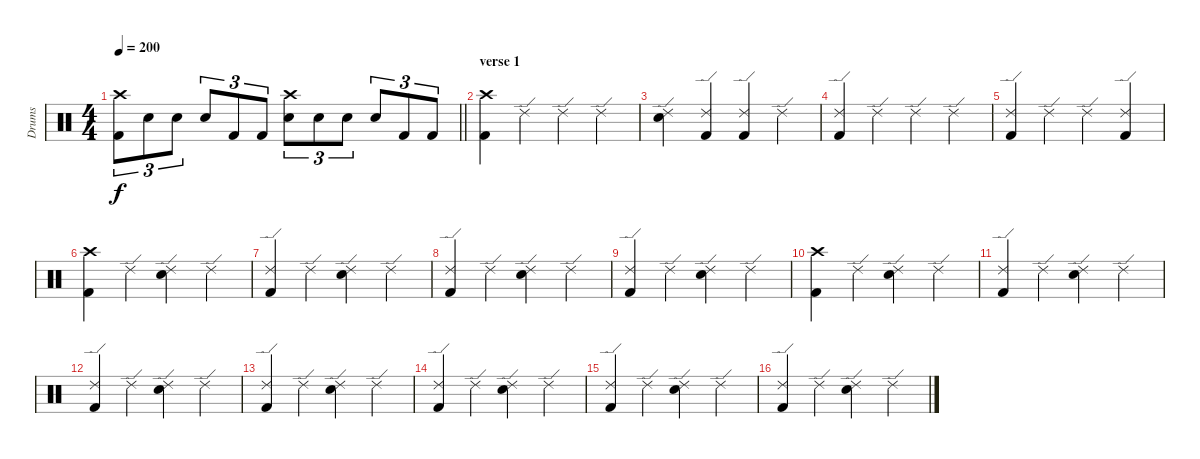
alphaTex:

\track ("Drums" "Drums") {instrument percussion}
\staff {score}
\articulation defaults
\ts (4 4)
\tempo 200
\clef neutral
\barLineRight lightlight
\ks c
("Crash high (hit)" "Kick (hit) 2").8{tu (3 2) dy f} "Electric Snare (hit)".8{tu (3 2)} "Electric Snare (hit)".8{tu (3 2)} "Electric Snare (hit)".8{tu (3 2)} "Kick (hit) 2".8{tu (3 2)} "Kick (hit) 2".8{tu (3 2)} ("Crash high (hit)" "Electric Snare (hit)").8{tu (3 2)} "Electric Snare (hit)".8{tu (3 2)} "Electric Snare (hit)".8{tu (3 2)} "Electric Snare (hit)".8{tu (3 2)} "Kick (hit) 2".8{tu (3 2)} "Kick (hit) 2".8{tu (3 2)} |
\section ("" "verse 1")
("Crash high (hit)" "Kick (hit) 2").4 "Ride (edge) 2".4 "Ride (edge) 2".4 "Ride (edge) 2".4 |
("Ride (edge) 2" "Electric Snare (hit)").4 ("Ride (edge) 2" "Kick (hit) 2").4 ("Ride (edge) 2" "Kick (hit) 2").4 "Ride (edge) 2".4 |
("Ride (edge) 2" "Kick (hit) 2").4 "Ride (edge) 2".4 "Ride (edge) 2".4 "Ride (edge) 2".4 |
("Ride (edge) 2" "Kick (hit) 2").4 "Ride (edge) 2".4 "Ride (edge) 2".4 ("Ride (edge) 2" "Kick (hit) 2").4 |
("Crash high (hit)" "Kick (hit) 2").4 "Ride (edge) 2".4 ("Ride (edge) 2" "Electric Snare (hit)").4 "Ride (edge) 2".4 |
("Ride (edge) 2" "Kick (hit) 2").4 "Ride (edge) 2".4 ("Ride (edge) 2" "Electric Snare (hit)").4 "Ride (edge) 2".4 |
("Ride (edge) 2" "Kick (hit) 2").4 "Ride (edge) 2".4 ("Ride (edge) 2" "Electric Snare (hit)").4 "Ride (edge) 2".4 |
("Ride (edge) 2" "Kick (hit) 2").4 "Ride (edge) 2".4 ("Ride (edge) 2" "Electric Snare (hit)").4 "Ride (edge) 2".4 |
("Crash high (hit)" "Kick (hit) 2").4 "Ride (edge) 2".4 ("Ride (edge) 2" "Electric Snare (hit)").4 "Ride (edge) 2".4 |
("Ride (edge) 2" "Kick (hit) 2").4 "Ride (edge) 2".4 ("Ride (edge) 2" "Electric Snare (hit)").4 "Ride (edge) 2".4 |
("Ride (edge) 2" "Kick (hit) 2").4 "Ride (edge) 2".4 ("Ride (edge) 2" "Electric Snare (hit)").4 "Ride (edge) 2".4 |
("Ride (edge) 2" "Kick (hit) 2").4 "Ride (edge) 2".4 ("Ride (edge) 2" "Electric Snare (hit)").4 "Ride (edge) 2".4 |
("Ride (edge) 2" "Kick (hit) 2").4 "Ride (edge) 2".4 ("Ride (edge) 2" "Electric Snare (hit)").4 "Ride (edge) 2".4 |
("Ride (edge) 2" "Kick (hit) 2").4 "Ride (edge) 2".4 ("Ride (edge) 2" "Electric Snare (hit)").4 "Ride (edge) 2".4 |
("Ride (edge) 2" "Kick (hit) 2").4 "Ride (edge) 2".4 ("Ride (edge) 2" "Electric Snare (hit)").4 "Ride (edge) 2".4
